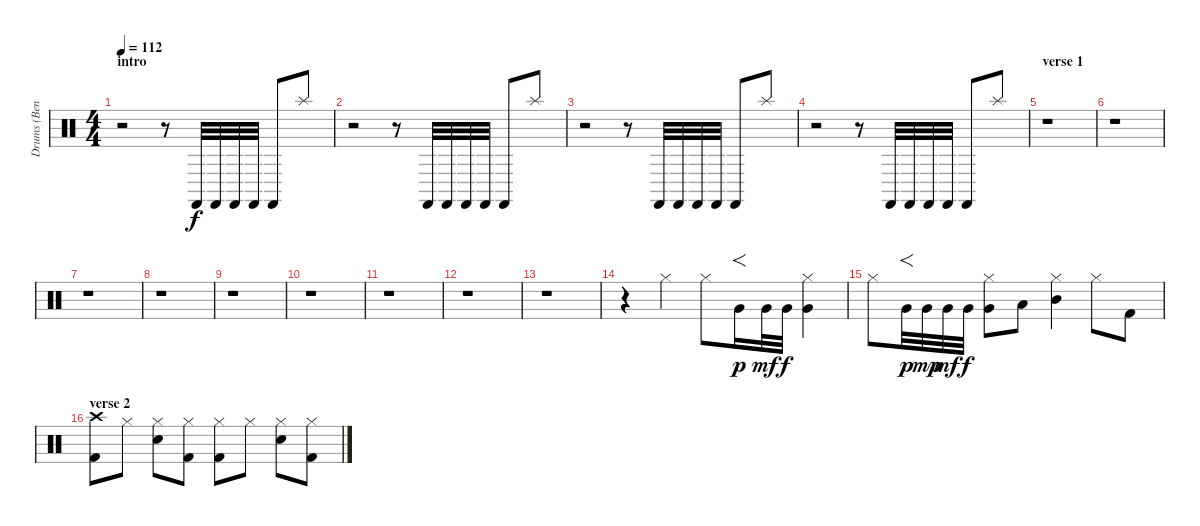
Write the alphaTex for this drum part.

\track ("Drums (Bengerg)" "Drums (Ben") {instrument percussion}
\staff {score}
\articulation defaults
\ts (4 4)
\section ("" "intro")
\tempo 112
\clef neutral
\ks c
r.2{dy f} r.8 "Castanets (hit)".32 "Castanets (hit)".32 "Castanets (hit)".32 "Castanets (hit)".32 "Castanets (hit)".8 "Splash (hit)".8 |
r.2 r.8 "Castanets (hit)".32 "Castanets (hit)".32 "Castanets (hit)".32 "Castanets (hit)".32 "Castanets (hit)".8 "Splash (hit)".8 |
r.2 r.8 "Castanets (hit)".32 "Castanets (hit)".32 "Castanets (hit)".32 "Castanets (hit)".32 "Castanets (hit)".8 "Splash (hit)".8 |
r.2 r.8 "Castanets (hit)".32 "Castanets (hit)".32 "Castanets (hit)".32 "Castanets (hit)".32 "Castanets (hit)".8 "Splash (hit)".8 |
\section ("" "verse 1")
r.1 |
r.1 |
r.1 |
r.1 |
r.1 |
r.1 |
r.1 |
r.1 |
r.1 |
r.4 "Hi-Hat (closed)".4 "Hi-Hat (closed)".8 "Very Low Tom (hit)".16{f dy p} "Very Low Tom (hit)".32{dy mf} "Very Low Tom (hit)".32{dy f} ("Hi-Hat (closed)" "Very Low Tom (hit)").4 |
"Hi-Hat (closed)".8 "Very Low Tom (hit)".32{f dy p} "Very Low Tom (hit)".32{dy mp} "Very Low Tom (hit)".32{dy mf} "Very Low Tom (hit)".32{dy f} ("Hi-Hat (closed)" "Very Low Tom (hit)").8 "Low Tom (hit)".8 ("Hi-Hat (closed)" "Mid Tom (hit)").4 "Hi-Hat (closed)".8 "Kick (hit) 2".8 |
\section ("" "verse 2")
("Crash high (hit)" "Kick (hit) 2").8 "Hi-Hat (closed)".8 ("Hi-Hat (closed)" "Electric Snare (hit)").8 ("Hi-Hat (closed)" "Kick (hit) 2").8 ("Hi-Hat (closed)" "Kick (hit) 2").8 "Hi-Hat (closed)".8 ("Hi-Hat (closed)" "Electric Snare (hit)").8 ("Hi-Hat (closed)" "Kick (hit) 2").8
